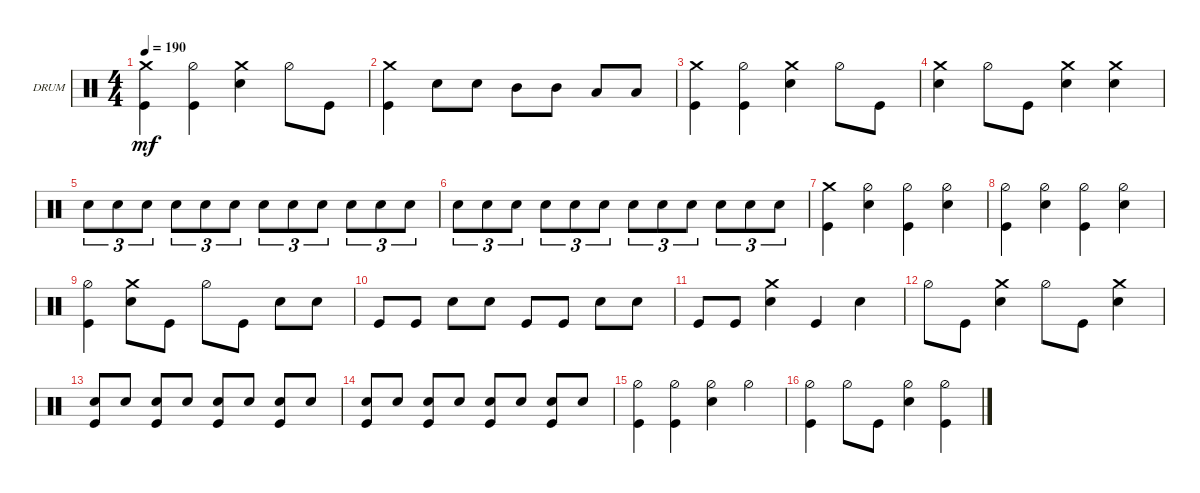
\defaultSystemsLayout 4
\bracketExtendMode groupsimilarinstruments
\firstSystemTrackNameOrientation horizontal
\otherSystemsTrackNameOrientation horizontal
\track ("Drums" "DRUM") {instrument percussion}
\staff {score}
\articulation defaults
\ts (4 4)
\tempo 190
\clef neutral
\ks c
("Kick (hit)" "Crash medium (hit)").4{dy mf} ("Kick (hit)" "Hi-Hat (half)").4 ("Snare (hit) 2" "Crash medium (hit)").4 "Hi-Hat (half)".8 "Kick (hit)".8 |
("Kick (hit)" "Crash medium (hit)").4 "Snare (hit) 2".8 "Snare (hit) 2".8 "Mid Tom (hit)".8 "Mid Tom (hit)".8 "Low Tom (hit)".8 "Low Tom (hit)".8 |
("Kick (hit)" "Crash medium (hit)").4 ("Kick (hit)" "Hi-Hat (half)").4 ("Snare (hit) 2" "Crash medium (hit)").4 "Hi-Hat (half)".8 "Kick (hit)".8 |
("Snare (hit) 2" "Crash medium (hit)").4 "Hi-Hat (half)".8 "Kick (hit)".8 ("Snare (hit) 2" "Crash medium (hit)").4 ("Snare (hit) 2" "Crash medium (hit)").4 |
"Snare (hit) 2".8{tu (3 2)} "Snare (hit) 2".8{tu (3 2)} "Snare (hit) 2".8{tu (3 2)} "Snare (hit) 2".8{tu (3 2)} "Snare (hit) 2".8{tu (3 2)} "Snare (hit) 2".8{tu (3 2)} "Snare (hit) 2".8{tu (3 2)} "Snare (hit) 2".8{tu (3 2)} "Snare (hit) 2".8{tu (3 2)} "Snare (hit) 2".8{tu (3 2)} "Snare (hit) 2".8{tu (3 2)} "Snare (hit) 2".8{tu (3 2)} |
"Snare (hit) 2".8{tu (3 2)} "Snare (hit) 2".8{tu (3 2)} "Snare (hit) 2".8{tu (3 2)} "Snare (hit) 2".8{tu (3 2)} "Snare (hit) 2".8{tu (3 2)} "Snare (hit) 2".8{tu (3 2)} "Snare (hit) 2".8{tu (3 2)} "Snare (hit) 2".8{tu (3 2)} "Snare (hit) 2".8{tu (3 2)} "Snare (hit) 2".8{tu (3 2)} "Snare (hit) 2".8{tu (3 2)} "Snare (hit) 2".8{tu (3 2)} |
("Kick (hit)" "Crash medium (hit)").4 ("Snare (hit) 2" "Hi-Hat (half)").4 ("Kick (hit)" "Hi-Hat (half)").4 ("Snare (hit) 2" "Hi-Hat (half)").4 |
("Kick (hit)" "Hi-Hat (half)").4 ("Snare (hit) 2" "Hi-Hat (half)").4 ("Kick (hit)" "Hi-Hat (half)").4 ("Snare (hit) 2" "Hi-Hat (half)").4 |
("Kick (hit)" "Hi-Hat (half)").4 ("Snare (hit) 2" "Crash medium (hit)").8 "Kick (hit)".8 "Hi-Hat (half)".8 "Kick (hit)".8 "Snare (hit) 2".8 "Snare (hit) 2".8 |
"Kick (hit)".8 "Kick (hit)".8 "Snare (hit) 2".8 "Snare (hit) 2".8 "Kick (hit)".8 "Kick (hit)".8 "Snare (hit) 2".8 "Snare (hit) 2".8 |
"Kick (hit)".8 "Kick (hit)".8 ("Snare (hit) 2" "Crash medium (hit)").4 "Kick (hit)".4 "Snare (hit) 2".4 |
"Hi-Hat (half)".8 "Kick (hit)".8 ("Snare (hit) 2" "Crash medium (hit)").4 "Hi-Hat (half)".8 "Kick (hit)".8 ("Snare (hit) 2" "Crash medium (hit)").4 |
("Snare (hit) 2" "Kick (hit)").8 "Snare (hit) 2".8 ("Snare (hit) 2" "Kick (hit)").8 "Snare (hit) 2".8 ("Snare (hit) 2" "Kick (hit)").8 "Snare (hit) 2".8 ("Snare (hit) 2" "Kick (hit)").8 "Snare (hit) 2".8 |
("Snare (hit) 2" "Kick (hit)").8 "Snare (hit) 2".8 ("Snare (hit) 2" "Kick (hit)").8 "Snare (hit) 2".8 ("Snare (hit) 2" "Kick (hit)").8 "Snare (hit) 2".8 ("Snare (hit) 2" "Kick (hit)").8 "Snare (hit) 2".8 |
("Kick (hit)" "Hi-Hat (half)").4 ("Kick (hit)" "Hi-Hat (half)").4 ("Snare (hit) 2" "Hi-Hat (half)").4 "Hi-Hat (half)".4 |
("Kick (hit)" "Hi-Hat (half)").4 "Hi-Hat (half)".8 "Kick (hit)".8 ("Snare (hit) 2" "Hi-Hat (half)").4 ("Kick (hit)" "Hi-Hat (half)").4
